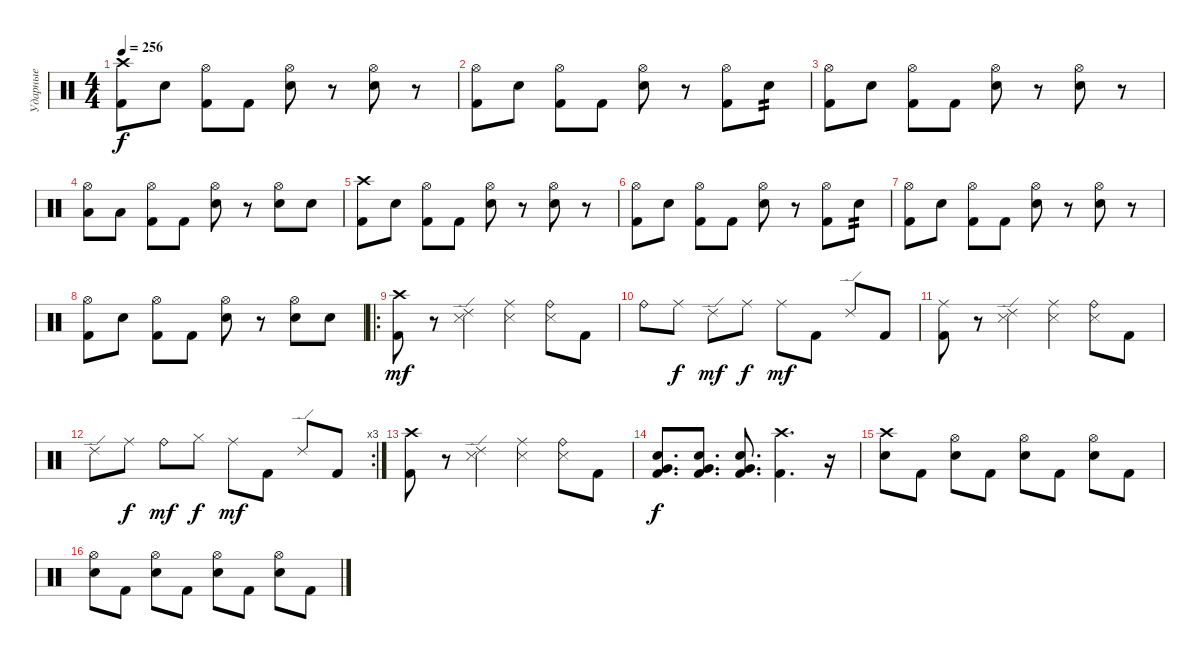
\track ("Ударные" "Ударные") {instrument percussion}
\staff {score}
\articulation defaults
\ts (4 4)
\tempo 256
\clef neutral
\ks c
("Crash high (hit)" "Kick (hit) 2").8{dy f} "Electric Snare (hit)".8 ("Hi-Hat (open)" "Kick (hit) 2").8 "Kick (hit) 2".8 ("Hi-Hat (open)" "Electric Snare (hit)").8 r.8 ("Hi-Hat (open)" "Electric Snare (hit)").8 r.8 |
("Hi-Hat (open)" "Kick (hit) 2").8 "Electric Snare (hit)".8 ("Hi-Hat (open)" "Kick (hit) 2").8 "Kick (hit) 2".8 ("Hi-Hat (open)" "Electric Snare (hit)").8 r.8 ("Hi-Hat (open)" "Kick (hit) 2").8 "Electric Snare (hit)".8{tp 2} |
("Hi-Hat (open)" "Kick (hit) 2").8 "Electric Snare (hit)".8 ("Hi-Hat (open)" "Kick (hit) 2").8 "Kick (hit) 2".8 ("Hi-Hat (open)" "Electric Snare (hit)").8 r.8 ("Hi-Hat (open)" "Electric Snare (hit)").8 r.8 |
("Hi-Hat (open)" "Low Tom (hit)").8 "Low Tom (hit)".8 ("Hi-Hat (open)" "Kick (hit) 2").8 "Kick (hit) 2".8 ("Hi-Hat (open)" "Electric Snare (hit)").8 r.8 ("Hi-Hat (open)" "Electric Snare (hit)").8 "Electric Snare (hit)".8 |
("Crash high (hit)" "Kick (hit) 2").8 "Electric Snare (hit)".8 ("Hi-Hat (open)" "Kick (hit) 2").8 "Kick (hit) 2".8 ("Hi-Hat (open)" "Electric Snare (hit)").8 r.8 ("Hi-Hat (open)" "Electric Snare (hit)").8 r.8 |
("Hi-Hat (open)" "Kick (hit) 2").8 "Electric Snare (hit)".8 ("Hi-Hat (open)" "Kick (hit) 2").8 "Kick (hit) 2".8 ("Hi-Hat (open)" "Electric Snare (hit)").8 r.8 ("Hi-Hat (open)" "Kick (hit) 2").8 "Electric Snare (hit)".8{tp 2} |
("Hi-Hat (open)" "Kick (hit) 2").8 "Electric Snare (hit)".8 ("Hi-Hat (open)" "Kick (hit) 2").8 "Kick (hit) 2".8 ("Hi-Hat (open)" "Electric Snare (hit)").8 r.8 ("Hi-Hat (open)" "Electric Snare (hit)").8 r.8 |
("Hi-Hat (open)" "Kick (hit) 2").8 "Electric Snare (hit)".8 ("Hi-Hat (open)" "Kick (hit) 2").8 "Kick (hit) 2".8 ("Hi-Hat (open)" "Electric Snare (hit)").8 r.8 ("Hi-Hat (open)" "Electric Snare (hit)").8 "Electric Snare (hit)".8 |
\ro
("Crash high (hit)" "Kick (hit) 2").8{dy mf} r.8 ("Ride (edge) 2" "Metronome (hit)").4 ("Ride (middle)" "Metronome (hit)").4 ("Ride (bell)" "Metronome (hit)").8 "Kick (hit) 2".8 |
"Ride (bell)".8 "Ride (middle)".8{dy f} "Ride (edge) 2".8{dy mf} "Ride (middle)".8{dy f} "Ride (middle)".8{dy mf} "Kick (hit) 2".8 "Ride (edge) 2".8 "Kick (hit) 2".8 |
("Ride (middle)" "Kick (hit) 2").8 r.8 ("Ride (edge) 2" "Metronome (hit)").4 ("Ride (middle)" "Metronome (hit)").4 ("Ride (bell)" "Metronome (hit)").8 "Kick (hit) 2".8 |
\rc 3 "Ride (edge) 2".8 "Ride (middle)".8{dy f} "Ride (bell)".8{dy mf} "Hi-Hat (closed)".8{dy f} "Ride (middle)".8{dy mf} "Kick (hit) 2".8 "Ride (edge) 2".8 "Kick (hit) 2".8
|
("Crash high (hit)" "Kick (hit) 2").8 r.8 ("Ride (edge) 2" "Metronome (hit)").4 ("Ride (middle)" "Metronome (hit)").4 ("Ride (bell)" "Metronome (hit)").8 "Kick (hit) 2".8 |
("Very Low Tom (hit)" "Snare (hit) 2" "Kick (hit) 2").8{d dy f} ("Very Low Tom (hit)" "Snare (hit) 2" "Kick (hit) 2").8{d} ("Very Low Tom (hit)" "Snare (hit) 2" "Kick (hit) 2").8{d} ("Crash high (hit)" "Kick (hit) 2").4{d} r.16 |
("Crash high (hit)" "Electric Snare (hit)").8 "Kick (hit) 2".8 ("Hi-Hat (open)" "Electric Snare (hit)").8 "Kick (hit) 2".8 ("Hi-Hat (open)" "Electric Snare (hit)").8 "Kick (hit) 2".8 ("Hi-Hat (open)" "Electric Snare (hit)").8 "Kick (hit) 2".8 |
("Hi-Hat (open)" "Electric Snare (hit)").8 "Kick (hit) 2".8 ("Hi-Hat (open)" "Electric Snare (hit)").8 "Kick (hit) 2".8 ("Hi-Hat (open)" "Electric Snare (hit)").8 "Kick (hit) 2".8 ("Hi-Hat (open)" "Electric Snare (hit)").8 "Kick (hit) 2".8
